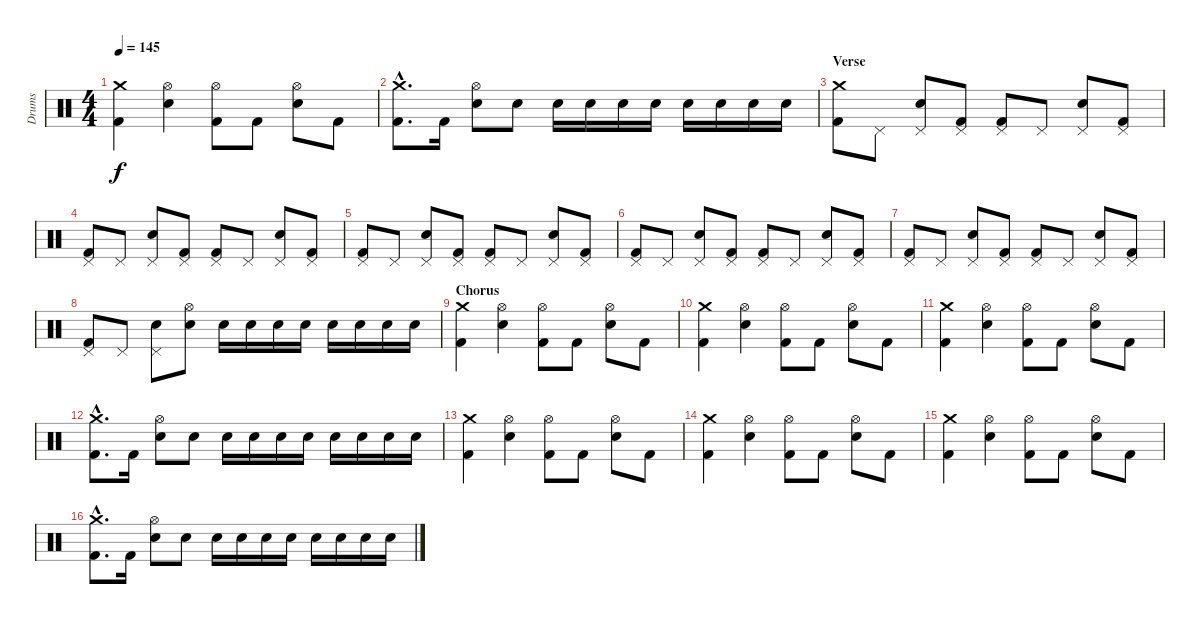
\track ("Drums" "Drums") {instrument percussion}
\staff {score}
\articulation defaults
\ts (4 4)
\tempo 145
\clef neutral
\ks c
("Crash medium (hit)" "Kick (hit) 2").4{dy f} ("Hi-Hat (open)" "Electric Snare (hit)").4 ("Hi-Hat (open)" "Kick (hit) 2").8 "Kick (hit) 2".8 ("Hi-Hat (open)" "Electric Snare (hit)").8 "Kick (hit) 2".8 |
("Crash medium (hit)"{hac} "Kick (hit) 2"{hac}).8{d} "Kick (hit) 2".16 ("Hi-Hat (open)" "Electric Snare (hit)").8 "Electric Snare (hit)".8 "Electric Snare (hit)".16 "Electric Snare (hit)".16 "Electric Snare (hit)".16 "Electric Snare (hit)".16 "Electric Snare (hit)".16 "Electric Snare (hit)".16 "Electric Snare (hit)".16 "Electric Snare (hit)".16 |
\section ("" "Verse")
("Crash medium (hit)" "Kick (hit) 2").8 "Pedal Hi-Hat (hit)".8 ("Pedal Hi-Hat (hit)" "Electric Snare (hit)").8 ("Pedal Hi-Hat (hit)" "Kick (hit) 2").8 ("Pedal Hi-Hat (hit)" "Kick (hit) 2").8 "Pedal Hi-Hat (hit)".8 ("Pedal Hi-Hat (hit)" "Electric Snare (hit)").8 ("Pedal Hi-Hat (hit)" "Kick (hit) 2").8 |
("Pedal Hi-Hat (hit)" "Kick (hit) 2").8 "Pedal Hi-Hat (hit)".8 ("Pedal Hi-Hat (hit)" "Electric Snare (hit)").8 ("Pedal Hi-Hat (hit)" "Kick (hit) 2").8 ("Pedal Hi-Hat (hit)" "Kick (hit) 2").8 "Pedal Hi-Hat (hit)".8 ("Pedal Hi-Hat (hit)" "Electric Snare (hit)").8 ("Pedal Hi-Hat (hit)" "Kick (hit) 2").8 |
("Pedal Hi-Hat (hit)" "Kick (hit) 2").8 "Pedal Hi-Hat (hit)".8 ("Pedal Hi-Hat (hit)" "Electric Snare (hit)").8 ("Pedal Hi-Hat (hit)" "Kick (hit) 2").8 ("Pedal Hi-Hat (hit)" "Kick (hit) 2").8 "Pedal Hi-Hat (hit)".8 ("Pedal Hi-Hat (hit)" "Electric Snare (hit)").8 ("Pedal Hi-Hat (hit)" "Kick (hit) 2").8 |
("Pedal Hi-Hat (hit)" "Kick (hit) 2").8 "Pedal Hi-Hat (hit)".8 ("Pedal Hi-Hat (hit)" "Electric Snare (hit)").8 ("Pedal Hi-Hat (hit)" "Kick (hit) 2").8 ("Pedal Hi-Hat (hit)" "Kick (hit) 2").8 "Pedal Hi-Hat (hit)".8 ("Pedal Hi-Hat (hit)" "Electric Snare (hit)").8 ("Pedal Hi-Hat (hit)" "Kick (hit) 2").8 |
("Pedal Hi-Hat (hit)" "Kick (hit) 2").8 "Pedal Hi-Hat (hit)".8 ("Pedal Hi-Hat (hit)" "Electric Snare (hit)").8 ("Pedal Hi-Hat (hit)" "Kick (hit) 2").8 ("Pedal Hi-Hat (hit)" "Kick (hit) 2").8 "Pedal Hi-Hat (hit)".8 ("Pedal Hi-Hat (hit)" "Electric Snare (hit)").8 ("Pedal Hi-Hat (hit)" "Kick (hit) 2").8 |
("Pedal Hi-Hat (hit)" "Kick (hit) 2").8 "Pedal Hi-Hat (hit)".8 ("Pedal Hi-Hat (hit)" "Electric Snare (hit)").8 ("Hi-Hat (open)" "Electric Snare (hit)").8 "Electric Snare (hit)".16 "Electric Snare (hit)".16 "Electric Snare (hit)".16 "Electric Snare (hit)".16 "Electric Snare (hit)".16 "Electric Snare (hit)".16 "Electric Snare (hit)".16 "Electric Snare (hit)".16 |
\section ("" "Chorus")
("Crash medium (hit)" "Kick (hit) 2").4 ("Hi-Hat (open)" "Electric Snare (hit)").4 ("Hi-Hat (open)" "Kick (hit) 2").8 "Kick (hit) 2".8 ("Hi-Hat (open)" "Electric Snare (hit)").8 "Kick (hit) 2".8 |
("Crash medium (hit)" "Kick (hit) 2").4 ("Hi-Hat (open)" "Electric Snare (hit)").4 ("Hi-Hat (open)" "Kick (hit) 2").8 "Kick (hit) 2".8 ("Hi-Hat (open)" "Electric Snare (hit)").8 "Kick (hit) 2".8 |
("Crash medium (hit)" "Kick (hit) 2").4 ("Hi-Hat (open)" "Electric Snare (hit)").4 ("Hi-Hat (open)" "Kick (hit) 2").8 "Kick (hit) 2".8 ("Hi-Hat (open)" "Electric Snare (hit)").8 "Kick (hit) 2".8 |
("Crash medium (hit)"{hac} "Kick (hit) 2"{hac}).8{d} "Kick (hit) 2".16 ("Hi-Hat (open)" "Electric Snare (hit)").8 "Electric Snare (hit)".8 "Electric Snare (hit)".16 "Electric Snare (hit)".16 "Electric Snare (hit)".16 "Electric Snare (hit)".16 "Electric Snare (hit)".16 "Electric Snare (hit)".16 "Electric Snare (hit)".16 "Electric Snare (hit)".16 |
("Crash medium (hit)" "Kick (hit) 2").4 ("Hi-Hat (open)" "Electric Snare (hit)").4 ("Hi-Hat (open)" "Kick (hit) 2").8 "Kick (hit) 2".8 ("Hi-Hat (open)" "Electric Snare (hit)").8 "Kick (hit) 2".8 |
("Crash medium (hit)" "Kick (hit) 2").4 ("Hi-Hat (open)" "Electric Snare (hit)").4 ("Hi-Hat (open)" "Kick (hit) 2").8 "Kick (hit) 2".8 ("Hi-Hat (open)" "Electric Snare (hit)").8 "Kick (hit) 2".8 |
("Crash medium (hit)" "Kick (hit) 2").4 ("Hi-Hat (open)" "Electric Snare (hit)").4 ("Hi-Hat (open)" "Kick (hit) 2").8 "Kick (hit) 2".8 ("Hi-Hat (open)" "Electric Snare (hit)").8 "Kick (hit) 2".8 |
("Crash medium (hit)"{hac} "Kick (hit) 2"{hac}).8{d} "Kick (hit) 2".16 ("Hi-Hat (open)" "Electric Snare (hit)").8 "Electric Snare (hit)".8 "Electric Snare (hit)".16 "Electric Snare (hit)".16 "Electric Snare (hit)".16 "Electric Snare (hit)".16 "Electric Snare (hit)".16 "Electric Snare (hit)".16 "Electric Snare (hit)".16 "Electric Snare (hit)".16
